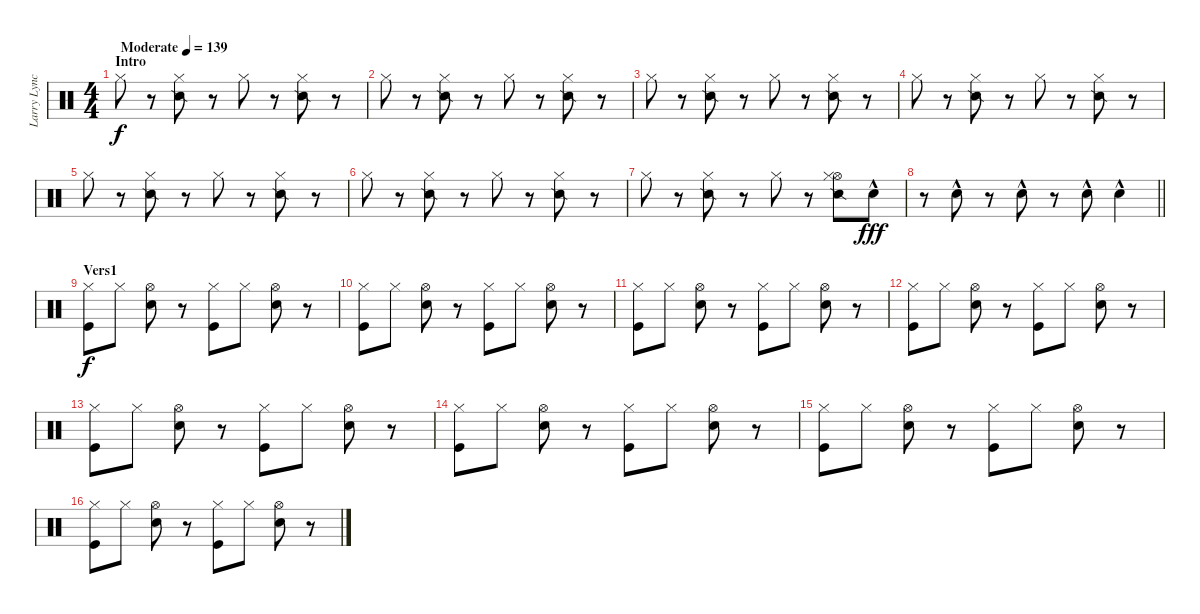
\track ("Larry Lynch" "Larry Lync") {instrument percussion}
\staff {score}
\articulation defaults
\ts (4 4)
\section ("" "Intro")
\tempo (139 "Moderate")
\clef neutral
\ks c "Hi-Hat (closed)".8{dy f}
r.8 ("Snare (side stick) 2" "Hi-Hat (closed)").8 r.8 "Hi-Hat (closed)".8 r.8 ("Snare (side stick) 2" "Hi-Hat (closed)").8 r.8 |
"Hi-Hat (closed)".8 r.8 ("Snare (side stick) 2" "Hi-Hat (closed)").8 r.8 "Hi-Hat (closed)".8 r.8 ("Snare (side stick) 2" "Hi-Hat (closed)").8 r.8 |
"Hi-Hat (closed)".8 r.8 ("Snare (side stick) 2" "Hi-Hat (closed)").8 r.8 "Hi-Hat (closed)".8 r.8 ("Snare (side stick) 2" "Hi-Hat (closed)").8 r.8 |
"Hi-Hat (closed)".8 r.8 ("Snare (side stick) 2" "Hi-Hat (closed)").8 r.8 "Hi-Hat (closed)".8 r.8 ("Snare (side stick) 2" "Hi-Hat (closed)").8 r.8 |
"Hi-Hat (closed)".8 r.8 ("Snare (side stick) 2" "Hi-Hat (closed)").8 r.8 "Hi-Hat (closed)".8 r.8 ("Snare (side stick) 2" "Hi-Hat (closed)").8 r.8 |
"Hi-Hat (closed)".8 r.8 ("Snare (side stick) 2" "Hi-Hat (closed)").8 r.8 "Hi-Hat (closed)".8 r.8 ("Snare (side stick) 2" "Hi-Hat (closed)").8 r.8 |
"Hi-Hat (closed)".8 r.8 ("Snare (side stick) 2" "Hi-Hat (closed)").8 r.8 "Hi-Hat (closed)".8 r.8 ("Hi-Hat (open)" "Snare (side stick) 2" "Hi-Hat (closed)").8 "Electric Snare (hit)"{hac}.8{dy fff volume 16} |
\barLineRight lightlight
r.8 "Electric Snare (hit)"{hac}.8 r.8 "Electric Snare (hit)"{hac}.8 r.8 "Electric Snare (hit)"{hac}.8 "Snare (hit) 2"{hac}.4 |
\section ("" "Vers1")
("Hi-Hat (closed)" "Kick (hit)").8{dy f volume 13} "Hi-Hat (closed)".8 ("Hi-Hat (open)" "Electric Snare (hit)").8 r.8 ("Hi-Hat (closed)" "Kick (hit)").8 "Hi-Hat (closed)".8 ("Hi-Hat (open)" "Electric Snare (hit)").8 r.8 |
("Hi-Hat (closed)" "Kick (hit)").8 "Hi-Hat (closed)".8 ("Hi-Hat (open)" "Electric Snare (hit)").8 r.8 ("Hi-Hat (closed)" "Kick (hit)").8 "Hi-Hat (closed)".8 ("Hi-Hat (open)" "Electric Snare (hit)").8 r.8 |
("Hi-Hat (closed)" "Kick (hit)").8 "Hi-Hat (closed)".8 ("Hi-Hat (open)" "Electric Snare (hit)").8 r.8 ("Hi-Hat (closed)" "Kick (hit)").8 "Hi-Hat (closed)".8 ("Hi-Hat (open)" "Electric Snare (hit)").8 r.8 |
("Hi-Hat (closed)" "Kick (hit)").8 "Hi-Hat (closed)".8 ("Hi-Hat (open)" "Electric Snare (hit)").8 r.8 ("Hi-Hat (closed)" "Kick (hit)").8 "Hi-Hat (closed)".8 ("Hi-Hat (open)" "Electric Snare (hit)").8 r.8 |
("Hi-Hat (closed)" "Kick (hit)").8 "Hi-Hat (closed)".8 ("Hi-Hat (open)" "Electric Snare (hit)").8 r.8 ("Hi-Hat (closed)" "Kick (hit)").8 "Hi-Hat (closed)".8 ("Hi-Hat (open)" "Electric Snare (hit)").8 r.8 |
("Hi-Hat (closed)" "Kick (hit)").8 "Hi-Hat (closed)".8 ("Hi-Hat (open)" "Electric Snare (hit)").8 r.8 ("Hi-Hat (closed)" "Kick (hit)").8 "Hi-Hat (closed)".8 ("Hi-Hat (open)" "Electric Snare (hit)").8 r.8 |
("Hi-Hat (closed)" "Kick (hit)").8 "Hi-Hat (closed)".8 ("Hi-Hat (open)" "Electric Snare (hit)").8 r.8 ("Hi-Hat (closed)" "Kick (hit)").8 "Hi-Hat (closed)".8 ("Hi-Hat (open)" "Electric Snare (hit)").8 r.8 |
("Hi-Hat (closed)" "Kick (hit)").8 "Hi-Hat (closed)".8 ("Hi-Hat (open)" "Electric Snare (hit)").8 r.8 ("Hi-Hat (closed)" "Kick (hit)").8 "Hi-Hat (closed)".8 ("Hi-Hat (open)" "Electric Snare (hit)").8 r.8
